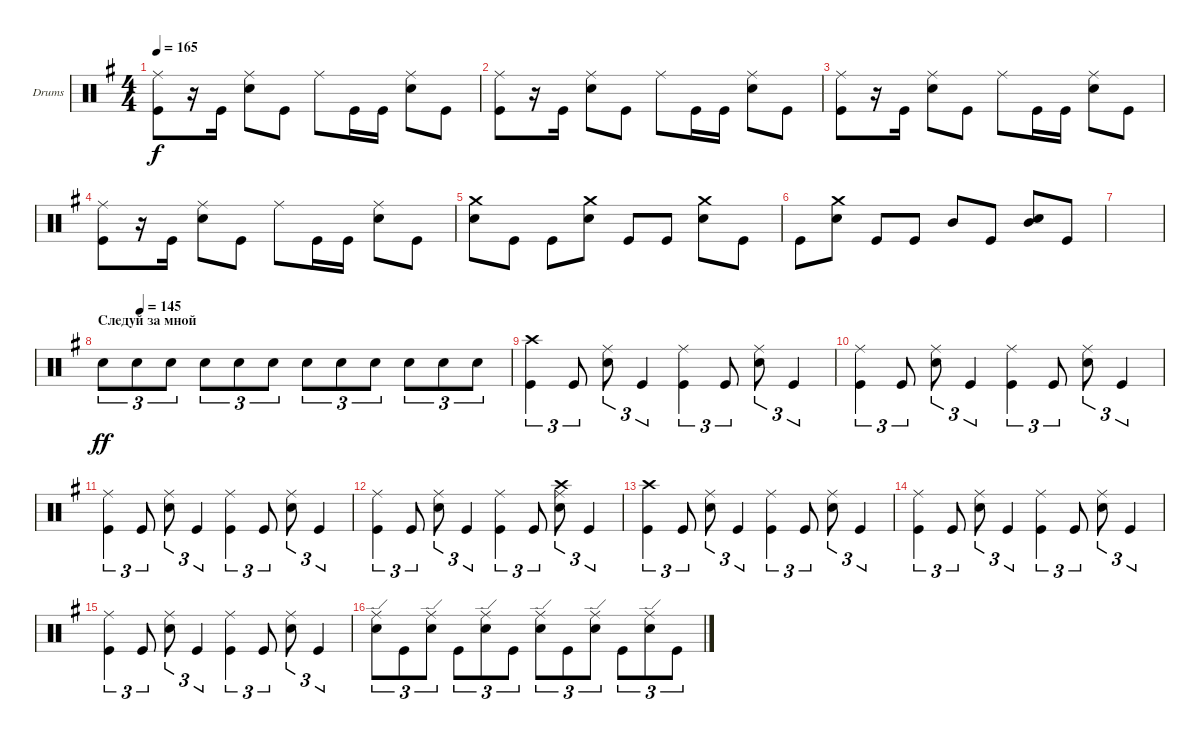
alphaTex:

\bracketExtendMode groupsimilarinstruments
\firstSystemTrackNameOrientation horizontal
\otherSystemsTrackNameOrientation horizontal
\track ("Александр Манякин" "Drums") {instrument percussion}
\staff {score}
\articulation defaults
\ts (4 4)
\tempo 165
\clef neutral
\ks eminor
("Kick (hit)" "Ride (middle)").8{dy f} r.16 "Kick (hit)".16 ("Snare (hit) 2" "Ride (middle)").8 "Kick (hit)".8 "Ride (middle)".8 "Kick (hit)".16 "Kick (hit)".16 ("Snare (hit) 2" "Ride (middle)").8 "Kick (hit)".8 |
("Kick (hit)" "Ride (middle)").8 r.16 "Kick (hit)".16 ("Snare (hit) 2" "Ride (middle)").8 "Kick (hit)".8 "Ride (middle)".8 "Kick (hit)".16 "Kick (hit)".16 ("Snare (hit) 2" "Ride (middle)").8 "Kick (hit)".8 |
("Kick (hit)" "Ride (middle)").8 r.16 "Kick (hit)".16 ("Snare (hit) 2" "Ride (middle)").8 "Kick (hit)".8 "Ride (middle)".8 "Kick (hit)".16 "Kick (hit)".16 ("Snare (hit) 2" "Ride (middle)").8 "Kick (hit)".8 |
("Kick (hit)" "Ride (middle)").8 r.16 "Kick (hit)".16 ("Snare (hit) 2" "Ride (middle)").8 "Kick (hit)".8 "Ride (middle)".8 "Kick (hit)".16 "Kick (hit)".16 ("Snare (hit) 2" "Ride (middle)").8 "Kick (hit)".8 |
("Snare (hit) 2" "Crash medium (hit)").8 "Kick (hit)".8 "Kick (hit)".8 ("Snare (hit) 2" "Crash medium (hit)").8 "Kick (hit)".8 "Kick (hit)".8 ("Snare (hit) 2" "Crash medium (hit)").8 "Kick (hit)".8 |
"Kick (hit)".8 ("Snare (hit) 2" "Crash medium (hit)").8 "Kick (hit)".8 "Kick (hit)".8 "Mid Tom (hit)".8 "Kick (hit)".8 ("Snare (hit) 2" "Mid Tom (hit)").8 "Kick (hit)".8 |
|
\section ("" "Следуй за мной")
\tempo (145 0.09375)
"Snare (hit) 2".8{tu (3 2) dy ff} "Snare (hit) 2".8{tu (3 2)} "Snare (hit) 2".8{tu (3 2)} "Snare (hit) 2".8{tu (3 2)} "Snare (hit) 2".8{tu (3 2)} "Snare (hit) 2".8{tu (3 2)} "Snare (hit) 2".8{tu (3 2)} "Snare (hit) 2".8{tu (3 2)} "Snare (hit) 2".8{tu (3 2)} "Snare (hit) 2".8{tu (3 2)} "Snare (hit) 2".8{tu (3 2)} "Snare (hit) 2".8{tu (3 2)} |
("Crash high (hit)" "Kick (hit)").4{tu (3 2)} "Kick (hit)".8{tu (3 2)} ("Ride (middle)" "Snare (hit) 2").8{tu (3 2)} "Kick (hit)".4{tu (3 2)} ("Ride (middle)" "Kick (hit)").4{tu (3 2)} "Kick (hit)".8{tu (3 2)} ("Ride (middle)" "Snare (hit) 2").8{tu (3 2)} "Kick (hit)".4{tu (3 2)} |
("Ride (middle)" "Kick (hit)").4{tu (3 2)} "Kick (hit)".8{tu (3 2)} ("Ride (middle)" "Snare (hit) 2").8{tu (3 2)} "Kick (hit)".4{tu (3 2)} ("Ride (middle)" "Kick (hit)").4{tu (3 2)} "Kick (hit)".8{tu (3 2)} ("Ride (middle)" "Snare (hit) 2").8{tu (3 2)} "Kick (hit)".4{tu (3 2)} |
("Ride (middle)" "Kick (hit)").4{tu (3 2)} "Kick (hit)".8{tu (3 2)} ("Ride (middle)" "Snare (hit) 2").8{tu (3 2)} "Kick (hit)".4{tu (3 2)} ("Ride (middle)" "Kick (hit)").4{tu (3 2)} "Kick (hit)".8{tu (3 2)} ("Ride (middle)" "Snare (hit) 2").8{tu (3 2)} "Kick (hit)".4{tu (3 2)} |
("Ride (middle)" "Kick (hit)").4{tu (3 2)} "Kick (hit)".8{tu (3 2)} ("Ride (middle)" "Snare (hit) 2").8{tu (3 2)} "Kick (hit)".4{tu (3 2)} ("Ride (middle)" "Kick (hit)").4{tu (3 2)} "Kick (hit)".8{tu (3 2)} ("Ride (middle)" "Snare (hit) 2" "Crash high (hit)").8{tu (3 2)} "Kick (hit)".4{tu (3 2)} |
("Crash high (hit)" "Kick (hit)").4{tu (3 2)} "Kick (hit)".8{tu (3 2)} ("Ride (middle)" "Snare (hit) 2").8{tu (3 2)} "Kick (hit)".4{tu (3 2)} ("Ride (middle)" "Kick (hit)").4{tu (3 2)} "Kick (hit)".8{tu (3 2)} ("Ride (middle)" "Snare (hit) 2").8{tu (3 2)} "Kick (hit)".4{tu (3 2)} |
("Ride (middle)" "Kick (hit)").4{tu (3 2)} "Kick (hit)".8{tu (3 2)} ("Ride (middle)" "Snare (hit) 2").8{tu (3 2)} "Kick (hit)".4{tu (3 2)} ("Ride (middle)" "Kick (hit)").4{tu (3 2)} "Kick (hit)".8{tu (3 2)} ("Ride (middle)" "Snare (hit) 2").8{tu (3 2)} "Kick (hit)".4{tu (3 2)} |
("Ride (middle)" "Kick (hit)").4{tu (3 2)} "Kick (hit)".8{tu (3 2)} ("Ride (middle)" "Snare (hit) 2").8{tu (3 2)} "Kick (hit)".4{tu (3 2)} ("Ride (middle)" "Kick (hit)").4{tu (3 2)} "Kick (hit)".8{tu (3 2)} ("Ride (middle)" "Snare (hit) 2").8{tu (3 2)} "Kick (hit)".4{tu (3 2)} |
("Ride (edge)" "Snare (hit) 2").8{tu (3 2)} "Kick (hit)".8{tu (3 2)} ("Ride (edge)" "Snare (hit) 2").8{tu (3 2)} "Kick (hit)".8{tu (3 2)} ("Ride (edge)" "Snare (hit) 2").8{tu (3 2)} "Kick (hit)".8{tu (3 2)} ("Ride (edge)" "Snare (hit) 2").8{tu (3 2)} "Kick (hit)".8{tu (3 2)} ("Ride (edge)" "Snare (hit) 2").8{tu (3 2)} "Kick (hit)".8{tu (3 2)} ("Ride (edge)" "Snare (hit) 2").8{tu (3 2)} "Kick (hit)".8{tu (3 2)}
